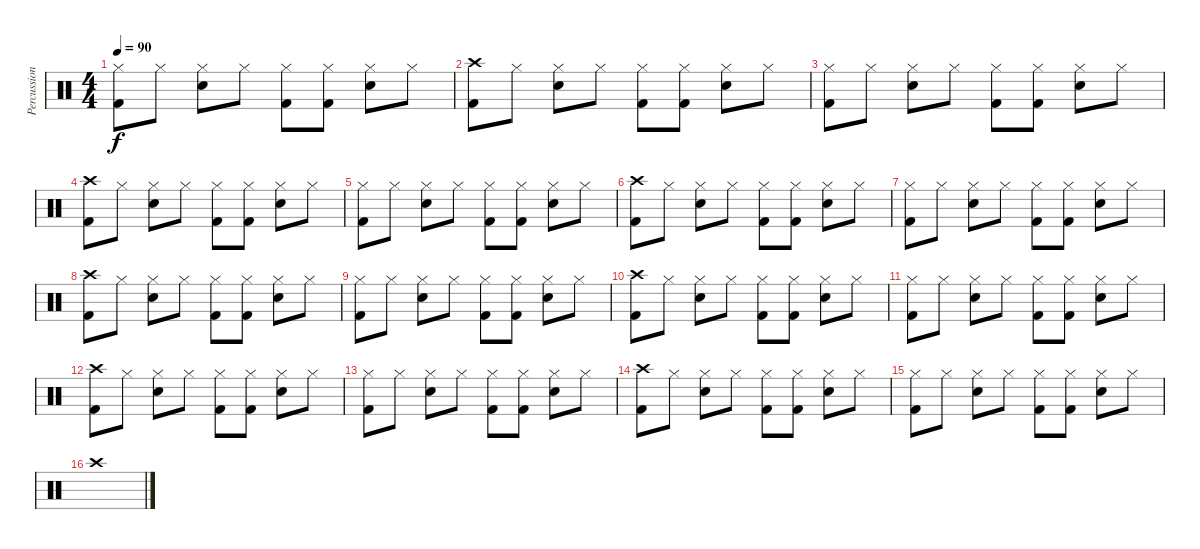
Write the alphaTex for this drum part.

\track ("Percussion" "Percussion") {instrument percussion}
\staff {score}
\articulation defaults
\ts (4 4)
\tempo 90
\clef neutral
\ks c
("Hi-Hat (closed)" "Kick (hit) 2").8{dy f} "Hi-Hat (closed)".8 ("Hi-Hat (closed)" "Snare (hit) 2").8 "Hi-Hat (closed)".8 ("Hi-Hat (closed)" "Kick (hit) 2").8 ("Hi-Hat (closed)" "Kick (hit) 2").8 ("Hi-Hat (closed)" "Snare (hit) 2").8 "Hi-Hat (closed)".8 |
("Crash high (hit)" "Kick (hit) 2").8 "Hi-Hat (closed)".8 ("Hi-Hat (closed)" "Snare (hit) 2").8 "Hi-Hat (closed)".8 ("Hi-Hat (closed)" "Kick (hit) 2").8 ("Hi-Hat (closed)" "Kick (hit) 2").8 ("Hi-Hat (closed)" "Snare (hit) 2").8 "Hi-Hat (closed)".8 |
("Hi-Hat (closed)" "Kick (hit) 2").8 "Hi-Hat (closed)".8 ("Hi-Hat (closed)" "Snare (hit) 2").8 "Hi-Hat (closed)".8 ("Hi-Hat (closed)" "Kick (hit) 2").8 ("Hi-Hat (closed)" "Kick (hit) 2").8 ("Hi-Hat (closed)" "Snare (hit) 2").8 "Hi-Hat (closed)".8 |
("Crash high (hit)" "Kick (hit) 2").8 "Hi-Hat (closed)".8 ("Hi-Hat (closed)" "Snare (hit) 2").8 "Hi-Hat (closed)".8 ("Hi-Hat (closed)" "Kick (hit) 2").8 ("Hi-Hat (closed)" "Kick (hit) 2").8 ("Hi-Hat (closed)" "Snare (hit) 2").8 "Hi-Hat (closed)".8 |
("Hi-Hat (closed)" "Kick (hit) 2").8 "Hi-Hat (closed)".8 ("Hi-Hat (closed)" "Snare (hit) 2").8 "Hi-Hat (closed)".8 ("Hi-Hat (closed)" "Kick (hit) 2").8 ("Hi-Hat (closed)" "Kick (hit) 2").8 ("Hi-Hat (closed)" "Snare (hit) 2").8 "Hi-Hat (closed)".8 |
("Crash high (hit)" "Kick (hit) 2").8 "Hi-Hat (closed)".8 ("Hi-Hat (closed)" "Snare (hit) 2").8 "Hi-Hat (closed)".8 ("Hi-Hat (closed)" "Kick (hit) 2").8 ("Hi-Hat (closed)" "Kick (hit) 2").8 ("Hi-Hat (closed)" "Snare (hit) 2").8 "Hi-Hat (closed)".8 |
("Hi-Hat (closed)" "Kick (hit) 2").8 "Hi-Hat (closed)".8 ("Hi-Hat (closed)" "Snare (hit) 2").8 "Hi-Hat (closed)".8 ("Hi-Hat (closed)" "Kick (hit) 2").8 ("Hi-Hat (closed)" "Kick (hit) 2").8 ("Hi-Hat (closed)" "Snare (hit) 2").8 "Hi-Hat (closed)".8 |
("Crash high (hit)" "Kick (hit) 2").8 "Hi-Hat (closed)".8 ("Hi-Hat (closed)" "Snare (hit) 2").8 "Hi-Hat (closed)".8 ("Hi-Hat (closed)" "Kick (hit) 2").8 ("Hi-Hat (closed)" "Kick (hit) 2").8 ("Hi-Hat (closed)" "Snare (hit) 2").8 "Hi-Hat (closed)".8 |
("Hi-Hat (closed)" "Kick (hit) 2").8 "Hi-Hat (closed)".8 ("Hi-Hat (closed)" "Snare (hit) 2").8 "Hi-Hat (closed)".8 ("Hi-Hat (closed)" "Kick (hit) 2").8 ("Hi-Hat (closed)" "Kick (hit) 2").8 ("Hi-Hat (closed)" "Snare (hit) 2").8 "Hi-Hat (closed)".8 |
("Crash high (hit)" "Kick (hit) 2").8 "Hi-Hat (closed)".8 ("Hi-Hat (closed)" "Snare (hit) 2").8 "Hi-Hat (closed)".8 ("Hi-Hat (closed)" "Kick (hit) 2").8 ("Hi-Hat (closed)" "Kick (hit) 2").8 ("Hi-Hat (closed)" "Snare (hit) 2").8 "Hi-Hat (closed)".8 |
("Hi-Hat (closed)" "Kick (hit) 2").8 "Hi-Hat (closed)".8 ("Hi-Hat (closed)" "Snare (hit) 2").8 "Hi-Hat (closed)".8 ("Hi-Hat (closed)" "Kick (hit) 2").8 ("Hi-Hat (closed)" "Kick (hit) 2").8 ("Hi-Hat (closed)" "Snare (hit) 2").8 "Hi-Hat (closed)".8 |
("Crash high (hit)" "Kick (hit) 2").8 "Hi-Hat (closed)".8 ("Hi-Hat (closed)" "Snare (hit) 2").8 "Hi-Hat (closed)".8 ("Hi-Hat (closed)" "Kick (hit) 2").8 ("Hi-Hat (closed)" "Kick (hit) 2").8 ("Hi-Hat (closed)" "Snare (hit) 2").8 "Hi-Hat (closed)".8 |
("Hi-Hat (closed)" "Kick (hit) 2").8 "Hi-Hat (closed)".8 ("Hi-Hat (closed)" "Snare (hit) 2").8 "Hi-Hat (closed)".8 ("Hi-Hat (closed)" "Kick (hit) 2").8 ("Hi-Hat (closed)" "Kick (hit) 2").8 ("Hi-Hat (closed)" "Snare (hit) 2").8 "Hi-Hat (closed)".8 |
("Crash high (hit)" "Kick (hit) 2").8 "Hi-Hat (closed)".8 ("Hi-Hat (closed)" "Snare (hit) 2").8 "Hi-Hat (closed)".8 ("Hi-Hat (closed)" "Kick (hit) 2").8 ("Hi-Hat (closed)" "Kick (hit) 2").8 ("Hi-Hat (closed)" "Snare (hit) 2").8 "Hi-Hat (closed)".8 |
("Hi-Hat (closed)" "Kick (hit) 2").8 "Hi-Hat (closed)".8 ("Hi-Hat (closed)" "Snare (hit) 2").8 "Hi-Hat (closed)".8 ("Hi-Hat (closed)" "Kick (hit) 2").8 ("Hi-Hat (closed)" "Kick (hit) 2").8 ("Hi-Hat (closed)" "Snare (hit) 2").8 "Hi-Hat (closed)".8 |
"Crash high (hit)".1
